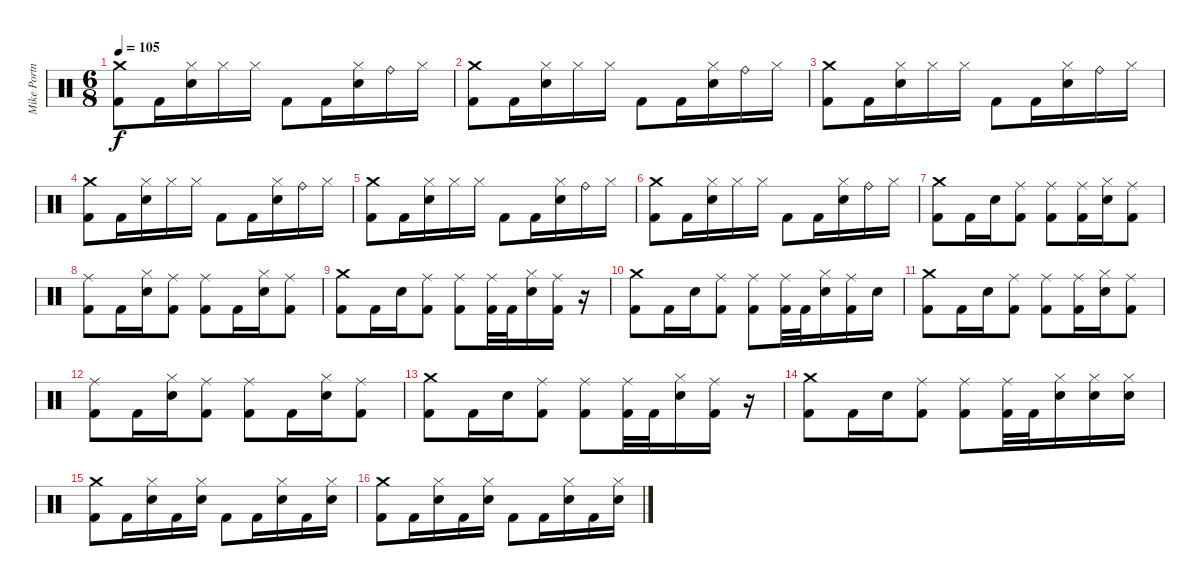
\track ("Mike Portnoy" "Mike Portn") {instrument percussion}
\staff {score}
\articulation defaults
\ts (6 8)
\tempo 105
\clef neutral
\ks c
("Crash medium (hit)" "Kick (hit) 2").8{dy f} "Kick (hit) 2".16 ("Hi-Hat (closed)" "Electric Snare (hit)").16 "Hi-Hat (closed)".16 "Hi-Hat (closed)".16 "Kick (hit) 2".8 "Kick (hit) 2".16 ("Hi-Hat (closed)" "Electric Snare (hit)").16 "Ride (bell)".16 "Hi-Hat (closed)".16 |
("Crash medium (hit)" "Kick (hit) 2").8 "Kick (hit) 2".16 ("Hi-Hat (closed)" "Electric Snare (hit)").16 "Hi-Hat (closed)".16 "Hi-Hat (closed)".16 "Kick (hit) 2".8 "Kick (hit) 2".16 ("Hi-Hat (closed)" "Electric Snare (hit)").16 "Ride (bell)".16 "Hi-Hat (closed)".16 |
("Crash medium (hit)" "Kick (hit) 2").8 "Kick (hit) 2".16 ("Hi-Hat (closed)" "Electric Snare (hit)").16 "Hi-Hat (closed)".16 "Hi-Hat (closed)".16 "Kick (hit) 2".8 "Kick (hit) 2".16 ("Hi-Hat (closed)" "Electric Snare (hit)").16 "Ride (bell)".16 "Hi-Hat (closed)".16 |
("Crash medium (hit)" "Kick (hit) 2").8 "Kick (hit) 2".16 ("Hi-Hat (closed)" "Electric Snare (hit)").16 "Hi-Hat (closed)".16 "Hi-Hat (closed)".16 "Kick (hit) 2".8 "Kick (hit) 2".16 ("Hi-Hat (closed)" "Electric Snare (hit)").16 "Ride (bell)".16 "Hi-Hat (closed)".16 |
("Crash medium (hit)" "Kick (hit) 2").8 "Kick (hit) 2".16 ("Hi-Hat (closed)" "Electric Snare (hit)").16 "Hi-Hat (closed)".16 "Hi-Hat (closed)".16 "Kick (hit) 2".8 "Kick (hit) 2".16 ("Hi-Hat (closed)" "Electric Snare (hit)").16 "Ride (bell)".16 "Hi-Hat (closed)".16 |
("Crash medium (hit)" "Kick (hit) 2").8 "Kick (hit) 2".16 ("Hi-Hat (closed)" "Electric Snare (hit)").16 "Hi-Hat (closed)".16 "Hi-Hat (closed)".16 "Kick (hit) 2".8 "Kick (hit) 2".16 ("Hi-Hat (closed)" "Electric Snare (hit)").16 "Ride (bell)".16 "Hi-Hat (closed)".16 |
("Crash medium (hit)" "Kick (hit) 2").8 "Kick (hit) 2".16 "Electric Snare (hit)".16 ("Ride (middle)" "Kick (hit) 2").8 ("Ride (middle)" "Kick (hit) 2").8 ("Ride (middle)" "Kick (hit) 2").16 ("Hi-Hat (closed)" "Electric Snare (hit)").16 ("Ride (middle)" "Kick (hit) 2").8 |
("Ride (middle)" "Kick (hit) 2").8 "Kick (hit) 2".16 ("Hi-Hat (closed)" "Electric Snare (hit)").16 ("Ride (middle)" "Kick (hit) 2").8 ("Ride (middle)" "Kick (hit) 2").8 "Kick (hit) 2".16 ("Hi-Hat (closed)" "Electric Snare (hit)").16 ("Ride (middle)" "Kick (hit) 2").8 |
("Crash medium (hit)" "Kick (hit) 2").8 "Kick (hit) 2".16 "Electric Snare (hit)".16 ("Ride (middle)" "Kick (hit) 2").8 ("Ride (middle)" "Kick (hit) 2").8 ("Ride (middle)" "Kick (hit) 2").32 "Kick (hit) 2".32 ("Hi-Hat (closed)" "Electric Snare (hit)").16 ("Ride (middle)" "Kick (hit) 2").16 r.16 |
("Crash medium (hit)" "Kick (hit) 2").8 "Kick (hit) 2".16 "Electric Snare (hit)".16 ("Ride (middle)" "Kick (hit) 2").8 ("Ride (middle)" "Kick (hit) 2").8 ("Ride (middle)" "Kick (hit) 2").32 "Kick (hit) 2".32 ("Hi-Hat (closed)" "Electric Snare (hit)").16 ("Ride (middle)" "Kick (hit) 2").16 "Electric Snare (hit)".16 |
("Crash medium (hit)" "Kick (hit) 2").8 "Kick (hit) 2".16 "Electric Snare (hit)".16 ("Ride (middle)" "Kick (hit) 2").8 ("Ride (middle)" "Kick (hit) 2").8 ("Ride (middle)" "Kick (hit) 2").16 ("Hi-Hat (closed)" "Electric Snare (hit)").16 ("Ride (middle)" "Kick (hit) 2").8 |
("Ride (middle)" "Kick (hit) 2").8 "Kick (hit) 2".16 ("Hi-Hat (closed)" "Electric Snare (hit)").16 ("Ride (middle)" "Kick (hit) 2").8 ("Ride (middle)" "Kick (hit) 2").8 "Kick (hit) 2".16 ("Hi-Hat (closed)" "Electric Snare (hit)").16 ("Ride (middle)" "Kick (hit) 2").8 |
("Crash medium (hit)" "Kick (hit) 2").8 "Kick (hit) 2".16 "Electric Snare (hit)".16 ("Ride (middle)" "Kick (hit) 2").8 ("Ride (middle)" "Kick (hit) 2").8 ("Ride (middle)" "Kick (hit) 2").32 "Kick (hit) 2".32 ("Hi-Hat (closed)" "Electric Snare (hit)").16 ("Ride (middle)" "Kick (hit) 2").16 r.16 |
("Crash medium (hit)" "Kick (hit) 2").8 "Kick (hit) 2".16 "Electric Snare (hit)".16 ("Ride (middle)" "Kick (hit) 2").8 ("Ride (middle)" "Kick (hit) 2").8 ("Ride (middle)" "Kick (hit) 2").32 "Kick (hit) 2".32 ("Hi-Hat (closed)" "Electric Snare (hit)").16 ("Hi-Hat (closed)" "Electric Snare (hit)").16 ("Hi-Hat (closed)" "Electric Snare (hit)").16 |
("Crash medium (hit)" "Kick (hit) 2").8 "Kick (hit) 2".16 ("Hi-Hat (closed)" "Electric Snare (hit)").16 "Kick (hit) 2".16 ("Hi-Hat (closed)" "Electric Snare (hit)").16 "Kick (hit) 2".8 "Kick (hit) 2".16 ("Hi-Hat (closed)" "Electric Snare (hit)").16 "Kick (hit) 2".16 ("Hi-Hat (closed)" "Electric Snare (hit)").16 |
("Crash medium (hit)" "Kick (hit) 2").8 "Kick (hit) 2".16 ("Hi-Hat (closed)" "Electric Snare (hit)").16 "Kick (hit) 2".16 ("Hi-Hat (closed)" "Electric Snare (hit)").16 "Kick (hit) 2".8 "Kick (hit) 2".16 ("Hi-Hat (closed)" "Electric Snare (hit)").16 "Kick (hit) 2".16 ("Hi-Hat (closed)" "Electric Snare (hit)").16
